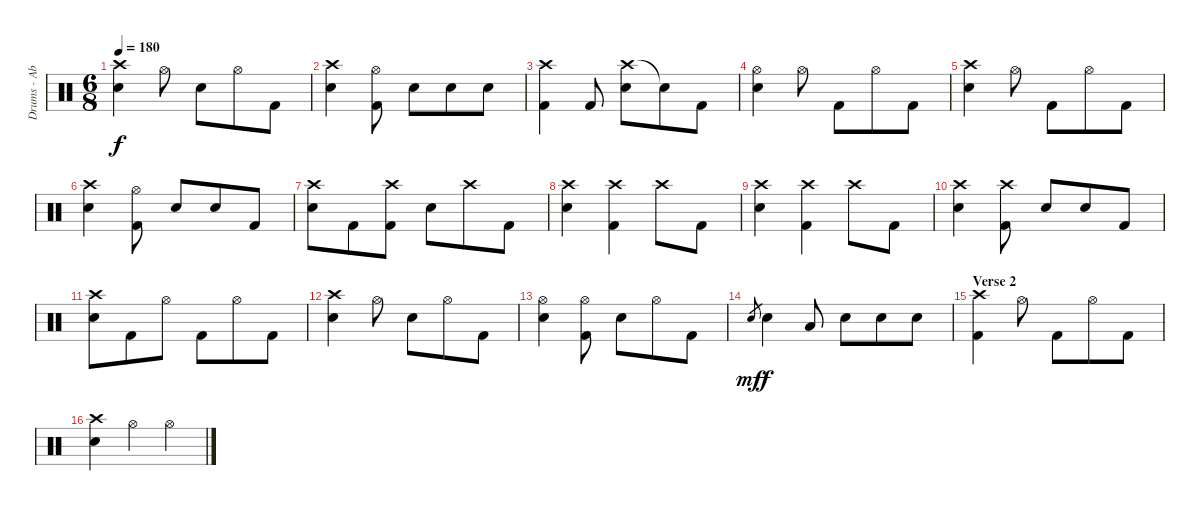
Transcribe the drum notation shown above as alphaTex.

\track ("Drums - Abe Cunningham" "Drums - Ab") {instrument percussion}
\staff {score}
\articulation defaults
\ts (6 8)
\tempo 180
\clef neutral
\ks c
("Crash high (hit)" "Electric Snare (hit)").4{dy f} "Hi-Hat (open)".8 "Electric Snare (hit)".8 "Hi-Hat (open)".8 "Kick (hit) 2".8 |
("Crash high (hit)" "Electric Snare (hit)").4 ("Hi-Hat (open)" "Kick (hit) 2").8 "Electric Snare (hit)".8 "Electric Snare (hit)".8 "Electric Snare (hit)".8 |
("Crash high (hit)" "Kick (hit) 2").4 "Kick (hit) 2".8 ("Crash high (hit)" "Electric Snare (hit)").8 "Snare (hit)"{t}.8 "Kick (hit) 2".8 |
("Hi-Hat (open)" "Electric Snare (hit)").4 "Hi-Hat (open)".8 "Kick (hit) 2".8 "Hi-Hat (open)".8 "Kick (hit) 2".8 |
("Crash high (hit)" "Electric Snare (hit)").4 "Hi-Hat (open)".8 "Kick (hit) 2".8 "Hi-Hat (open)".8 "Kick (hit) 2".8 |
("Crash high (hit)" "Electric Snare (hit)").4 ("Hi-Hat (open)" "Kick (hit) 2").8 "Electric Snare (hit)".8 "Electric Snare (hit)".8 "Kick (hit) 2".8 |
("Crash high (hit)" "Electric Snare (hit)").8 "Kick (hit) 2".8 ("Crash high (hit)" "Kick (hit) 2").8 "Electric Snare (hit)".8 "Crash high (hit)".8 "Kick (hit) 2".8 |
("Crash high (hit)" "Electric Snare (hit)").4 ("Crash high (hit)" "Kick (hit) 2").4 "Crash high (hit)".8 "Kick (hit) 2".8 |
("Crash high (hit)" "Electric Snare (hit)").4 ("Crash high (hit)" "Kick (hit) 2").4 "Crash high (hit)".8 "Kick (hit) 2".8 |
("Crash high (hit)" "Electric Snare (hit)").4 ("Crash high (hit)" "Kick (hit) 2").8 "Electric Snare (hit)".8 "Electric Snare (hit)".8 "Kick (hit) 2".8 |
("Crash high (hit)" "Electric Snare (hit)").8 "Kick (hit) 2".8 "Hi-Hat (open)".8 "Kick (hit) 2".8 "Hi-Hat (open)".8 "Kick (hit) 2".8 |
("Crash high (hit)" "Electric Snare (hit)").4 "Hi-Hat (open)".8 "Electric Snare (hit)".8 "Hi-Hat (open)".8 "Kick (hit) 2".8 |
("Hi-Hat (open)" "Electric Snare (hit)").4 ("Hi-Hat (open)" "Kick (hit) 2").8 "Electric Snare (hit)".8 "Hi-Hat (open)".8 "Kick (hit) 2".8 |
"Electric Snare (hit)".8{gr dy mf} "Electric Snare (hit)".4{dy f} "Low Tom (hit)".8 "Electric Snare (hit)".8 "Electric Snare (hit)".8 "Electric Snare (hit)".8 |
\section ("" "Verse 2")
("Crash high (hit)" "Kick (hit) 2").4 "Hi-Hat (open)".8 "Kick (hit) 2".8 "Hi-Hat (open)".8 "Kick (hit) 2".8 |
("Crash high (hit)" "Electric Snare (hit)").4 "Hi-Hat (open)".4 "Hi-Hat (open)".4
